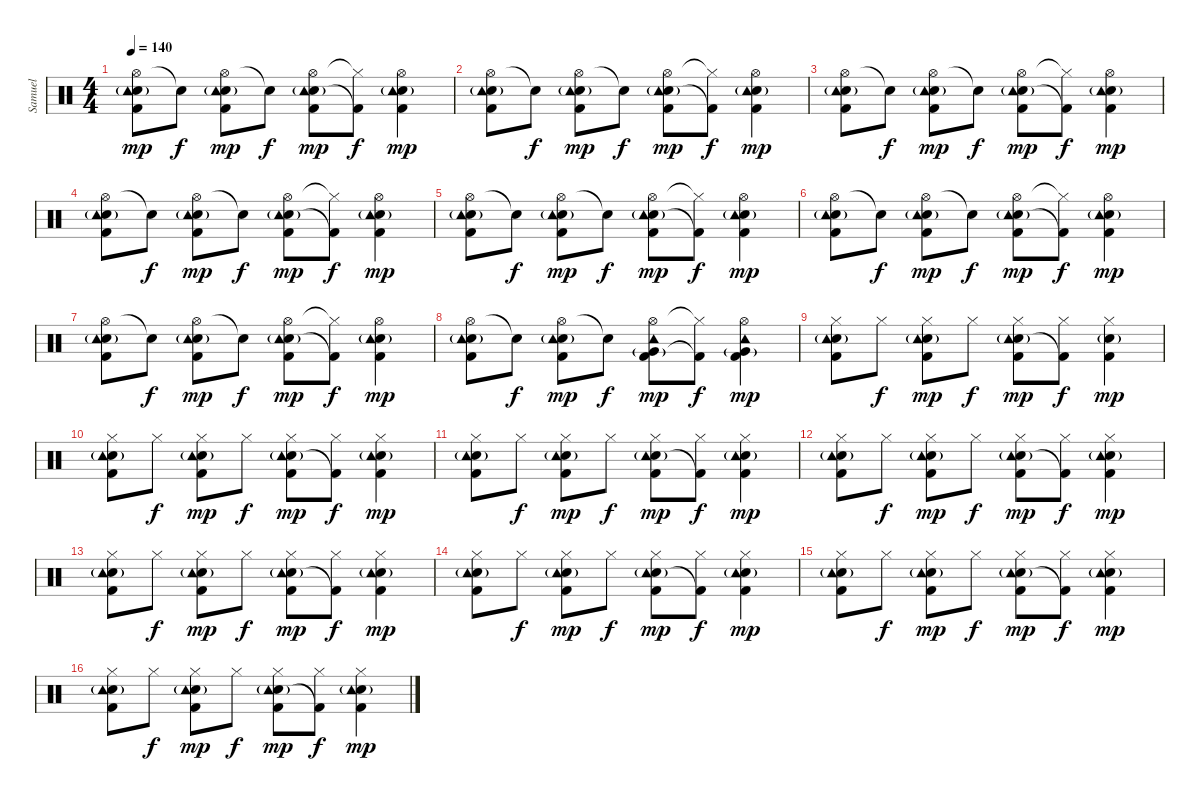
\track ("Samuel" "Samuel") {instrument percussion}
\staff {score}
\articulation defaults
\ts (4 4)
\tempo 140
\clef neutral
\ks c
("Hi-Hat (open)" "Snare (hit) 2"{g} "Kick (hit) 2" "Tambourine (hit)").8{dy mp} "Snare (hit)"{t}.8{dy f} ("Hi-Hat (open)" "Snare (hit) 2"{g} "Kick (hit) 2" "Tambourine (hit)").8{dy mp} "Snare (hit)"{t}.8{dy f} ("Hi-Hat (open)" "Snare (hit) 2"{g} "Kick (hit) 2" "Tambourine (hit)").8{dy mp} ("Hi-Hat (closed)"{t} "Kick (hit) 2"{t}).8{dy f} ("Hi-Hat (open)" "Snare (hit) 2"{g} "Kick (hit) 2" "Tambourine (hit)").4{dy mp} |
("Hi-Hat (open)" "Snare (hit) 2"{g} "Kick (hit) 2" "Tambourine (hit)").8 "Snare (hit)"{t}.8{dy f} ("Hi-Hat (open)" "Snare (hit) 2"{g} "Kick (hit) 2" "Tambourine (hit)").8{dy mp} "Snare (hit)"{t}.8{dy f} ("Hi-Hat (open)" "Snare (hit) 2"{g} "Kick (hit) 2" "Tambourine (hit)").8{dy mp} ("Hi-Hat (closed)"{t} "Kick (hit) 2"{t}).8{dy f} ("Hi-Hat (open)" "Snare (hit) 2"{g} "Kick (hit) 2" "Tambourine (hit)").4{dy mp} |
("Hi-Hat (open)" "Snare (hit) 2"{g} "Kick (hit) 2" "Tambourine (hit)").8 "Snare (hit)"{t}.8{dy f} ("Hi-Hat (open)" "Snare (hit) 2"{g} "Kick (hit) 2" "Tambourine (hit)").8{dy mp} "Snare (hit)"{t}.8{dy f} ("Hi-Hat (open)" "Snare (hit) 2"{g} "Kick (hit) 2" "Tambourine (hit)").8{dy mp} ("Hi-Hat (closed)"{t} "Kick (hit) 2"{t}).8{dy f} ("Hi-Hat (open)" "Snare (hit) 2"{g} "Kick (hit) 2" "Tambourine (hit)").4{dy mp} |
("Hi-Hat (open)" "Snare (hit) 2"{g} "Kick (hit) 2" "Tambourine (hit)").8 "Snare (hit)"{t}.8{dy f} ("Hi-Hat (open)" "Snare (hit) 2"{g} "Kick (hit) 2" "Tambourine (hit)").8{dy mp} "Snare (hit)"{t}.8{dy f} ("Hi-Hat (open)" "Snare (hit) 2"{g} "Kick (hit) 2" "Tambourine (hit)").8{dy mp} ("Hi-Hat (closed)"{t} "Kick (hit) 2"{t}).8{dy f} ("Hi-Hat (open)" "Snare (hit) 2"{g} "Kick (hit) 2" "Tambourine (hit)").4{dy mp} |
("Hi-Hat (open)" "Snare (hit) 2"{g} "Kick (hit) 2" "Tambourine (hit)").8 "Snare (hit)"{t}.8{dy f} ("Hi-Hat (open)" "Snare (hit) 2"{g} "Kick (hit) 2" "Tambourine (hit)").8{dy mp} "Snare (hit)"{t}.8{dy f} ("Hi-Hat (open)" "Snare (hit) 2"{g} "Kick (hit) 2" "Tambourine (hit)").8{dy mp} ("Hi-Hat (closed)"{t} "Kick (hit) 2"{t}).8{dy f} ("Hi-Hat (open)" "Snare (hit) 2"{g} "Kick (hit) 2" "Tambourine (hit)").4{dy mp} |
("Hi-Hat (open)" "Snare (hit) 2"{g} "Kick (hit) 2" "Tambourine (hit)").8 "Snare (hit)"{t}.8{dy f} ("Hi-Hat (open)" "Snare (hit) 2"{g} "Kick (hit) 2" "Tambourine (hit)").8{dy mp} "Snare (hit)"{t}.8{dy f} ("Hi-Hat (open)" "Snare (hit) 2"{g} "Kick (hit) 2" "Tambourine (hit)").8{dy mp} ("Hi-Hat (closed)"{t} "Kick (hit) 2"{t}).8{dy f} ("Hi-Hat (open)" "Snare (hit) 2"{g} "Kick (hit) 2" "Tambourine (hit)").4{dy mp} |
("Hi-Hat (open)" "Snare (hit) 2"{g} "Kick (hit) 2" "Tambourine (hit)").8 "Snare (hit)"{t}.8{dy f} ("Hi-Hat (open)" "Snare (hit) 2"{g} "Kick (hit) 2" "Tambourine (hit)").8{dy mp} "Snare (hit)"{t}.8{dy f} ("Hi-Hat (open)" "Snare (hit) 2"{g} "Kick (hit) 2" "Tambourine (hit)").8{dy mp} ("Hi-Hat (closed)"{t} "Kick (hit) 2"{t}).8{dy f} ("Hi-Hat (open)" "Snare (hit) 2"{g} "Kick (hit) 2" "Tambourine (hit)").4{dy mp} |
("Hi-Hat (open)" "Snare (hit) 2"{g} "Kick (hit) 2" "Tambourine (hit)").8 "Snare (hit)"{t}.8{dy f} ("Hi-Hat (open)" "Snare (hit) 2"{g} "Kick (hit) 2" "Tambourine (hit)").8{dy mp} "Snare (hit)"{t}.8{dy f} ("Hi-Hat (open)" "Very Low Tom (hit)"{g} "Kick (hit) 2" "Tambourine (hit)").8{dy mp} ("Hi-Hat (closed)"{t} "Kick (hit) 2"{t}).8{dy f} ("Hi-Hat (open)" "Very Low Tom (hit)"{g} "Kick (hit) 2" "Tambourine (hit)").4{dy mp} |
("Hi-Hat (closed)" "Snare (hit) 2"{g} "Kick (hit) 2" "Tambourine (hit)").8 "Hi-Hat (closed)".8{dy f} ("Hi-Hat (closed)" "Snare (hit) 2"{g} "Kick (hit) 2" "Tambourine (hit)").8{dy mp} "Hi-Hat (closed)".8{dy f} ("Hi-Hat (closed)" "Snare (hit) 2"{g} "Kick (hit) 2" "Tambourine (hit)").8{dy mp} ("Hi-Hat (closed)" "Kick (hit) 2"{t}).8{dy f} ("Hi-Hat (closed)" "Snare (hit) 2"{g} "Kick (hit) 2").4{dy mp} |
("Hi-Hat (closed)" "Snare (hit) 2"{g} "Kick (hit) 2" "Tambourine (hit)").8 "Hi-Hat (closed)".8{dy f} ("Hi-Hat (closed)" "Snare (hit) 2"{g} "Kick (hit) 2" "Tambourine (hit)").8{dy mp} "Hi-Hat (closed)".8{dy f} ("Hi-Hat (closed)" "Snare (hit) 2"{g} "Kick (hit) 2" "Tambourine (hit)").8{dy mp} ("Hi-Hat (closed)" "Kick (hit) 2"{t}).8{dy f} ("Hi-Hat (closed)" "Snare (hit) 2"{g} "Kick (hit) 2" "Tambourine (hit)").4{dy mp} |
("Hi-Hat (closed)" "Snare (hit) 2"{g} "Kick (hit) 2" "Tambourine (hit)").8 "Hi-Hat (closed)".8{dy f} ("Hi-Hat (closed)" "Snare (hit) 2"{g} "Kick (hit) 2" "Tambourine (hit)").8{dy mp} "Hi-Hat (closed)".8{dy f} ("Hi-Hat (closed)" "Snare (hit) 2"{g} "Kick (hit) 2" "Tambourine (hit)").8{dy mp} ("Hi-Hat (closed)" "Kick (hit) 2"{t}).8{dy f} ("Hi-Hat (closed)" "Snare (hit) 2"{g} "Kick (hit) 2" "Tambourine (hit)").4{dy mp} |
("Hi-Hat (closed)" "Snare (hit) 2"{g} "Kick (hit) 2" "Tambourine (hit)").8 "Hi-Hat (closed)".8{dy f} ("Hi-Hat (closed)" "Snare (hit) 2"{g} "Kick (hit) 2" "Tambourine (hit)").8{dy mp} "Hi-Hat (closed)".8{dy f} ("Hi-Hat (closed)" "Snare (hit) 2"{g} "Kick (hit) 2" "Tambourine (hit)").8{dy mp} ("Hi-Hat (closed)" "Kick (hit) 2"{t}).8{dy f} ("Hi-Hat (closed)" "Snare (hit) 2"{g} "Kick (hit) 2" "Tambourine (hit)").4{dy mp} |
("Hi-Hat (closed)" "Snare (hit) 2"{g} "Kick (hit) 2" "Tambourine (hit)").8 "Hi-Hat (closed)".8{dy f} ("Hi-Hat (closed)" "Snare (hit) 2"{g} "Kick (hit) 2" "Tambourine (hit)").8{dy mp} "Hi-Hat (closed)".8{dy f} ("Hi-Hat (closed)" "Snare (hit) 2"{g} "Kick (hit) 2" "Tambourine (hit)").8{dy mp} ("Hi-Hat (closed)" "Kick (hit) 2"{t}).8{dy f} ("Hi-Hat (closed)" "Snare (hit) 2"{g} "Kick (hit) 2" "Tambourine (hit)").4{dy mp} |
("Hi-Hat (closed)" "Snare (hit) 2"{g} "Kick (hit) 2" "Tambourine (hit)").8 "Hi-Hat (closed)".8{dy f} ("Hi-Hat (closed)" "Snare (hit) 2"{g} "Kick (hit) 2" "Tambourine (hit)").8{dy mp} "Hi-Hat (closed)".8{dy f} ("Hi-Hat (closed)" "Snare (hit) 2"{g} "Kick (hit) 2" "Tambourine (hit)").8{dy mp} ("Hi-Hat (closed)" "Kick (hit) 2"{t}).8{dy f} ("Hi-Hat (closed)" "Snare (hit) 2"{g} "Kick (hit) 2" "Tambourine (hit)").4{dy mp} |
("Hi-Hat (closed)" "Snare (hit) 2"{g} "Kick (hit) 2" "Tambourine (hit)").8 "Hi-Hat (closed)".8{dy f} ("Hi-Hat (closed)" "Snare (hit) 2"{g} "Kick (hit) 2" "Tambourine (hit)").8{dy mp} "Hi-Hat (closed)".8{dy f} ("Hi-Hat (closed)" "Snare (hit) 2"{g} "Kick (hit) 2" "Tambourine (hit)").8{dy mp} ("Hi-Hat (closed)" "Kick (hit) 2"{t}).8{dy f} ("Hi-Hat (closed)" "Snare (hit) 2"{g} "Kick (hit) 2" "Tambourine (hit)").4{dy mp} |
("Hi-Hat (closed)" "Snare (hit) 2"{g} "Kick (hit) 2" "Tambourine (hit)").8 "Hi-Hat (closed)".8{dy f} ("Hi-Hat (closed)" "Snare (hit) 2"{g} "Kick (hit) 2" "Tambourine (hit)").8{dy mp} "Hi-Hat (closed)".8{dy f} ("Hi-Hat (closed)" "Snare (hit) 2"{g} "Kick (hit) 2" "Tambourine (hit)").8{dy mp} ("Hi-Hat (closed)" "Kick (hit) 2"{t}).8{dy f} ("Hi-Hat (closed)" "Snare (hit) 2"{g} "Kick (hit) 2" "Tambourine (hit)").4{dy mp}
